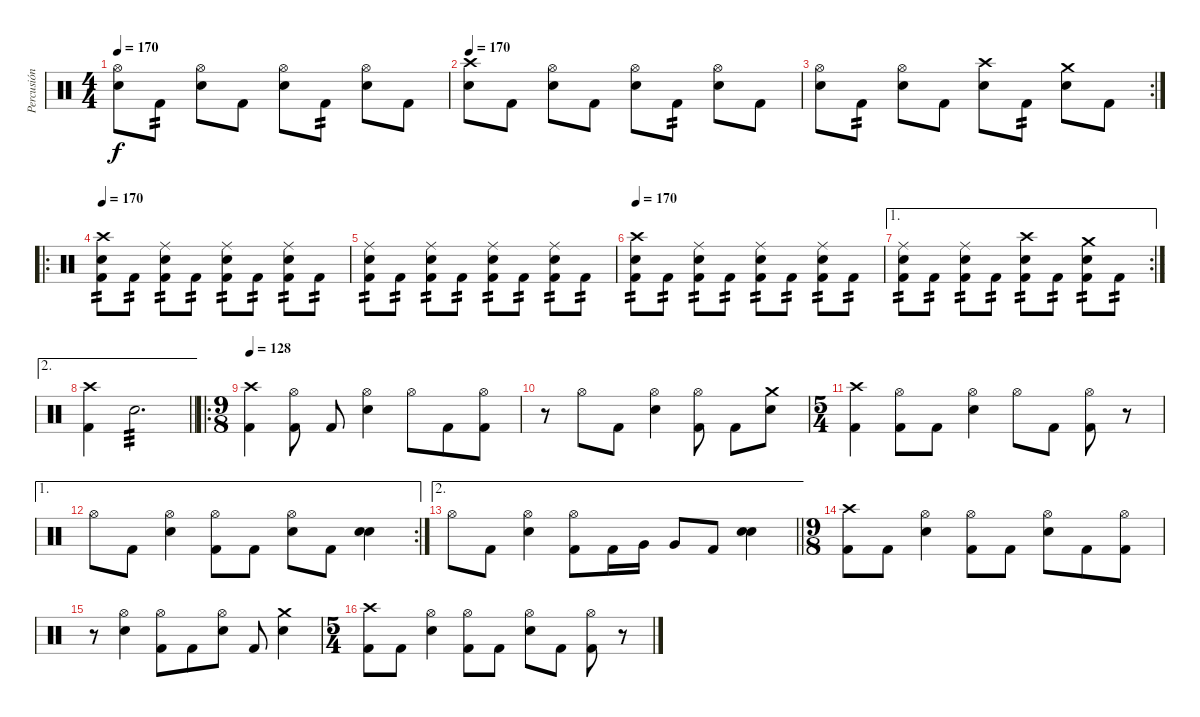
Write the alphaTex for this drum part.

\track ("Percusión" "Percusión") {instrument percussion}
\staff
\articulation defaults
\ts (4 4)
\tempo 170
\clef neutral
\ks c
("Electric Snare (hit)" "Hi-Hat (open)").8{dy f} "Kick (hit) 2".8{tp 2} ("Electric Snare (hit)" "Hi-Hat (open)").8 "Kick (hit) 2".8 ("Electric Snare (hit)" "Hi-Hat (open)").8 "Kick (hit) 2".8{tp 2} ("Electric Snare (hit)" "Hi-Hat (open)").8 "Kick (hit) 2".8 |
\tempo 170
("Electric Snare (hit)" "Crash high (hit)").8 "Kick (hit) 2".8 ("Electric Snare (hit)" "Hi-Hat (open)").8 "Kick (hit) 2".8 ("Electric Snare (hit)" "Hi-Hat (open)").8 "Kick (hit) 2".8{tp 2} ("Electric Snare (hit)" "Hi-Hat (open)").8 "Kick (hit) 2".8 |
\rc 2
("Electric Snare (hit)" "Hi-Hat (open)").8 "Kick (hit) 2".8{tp 2} ("Electric Snare (hit)" "Hi-Hat (open)").8 "Kick (hit) 2".8 ("Electric Snare (hit)" "Crash high (hit)").8 "Kick (hit) 2".8{tp 2} ("Electric Snare (hit)" "Crash medium (hit)").8 "Kick (hit) 2".8 |
\ro
\tempo 170
("Kick (hit) 2" "Electric Snare (hit)" "Crash high (hit)").8{tp 2} "Kick (hit) 2".8{tp 2} ("Kick (hit) 2" "Electric Snare (hit)" "Ride (middle)").8{tp 2} "Kick (hit) 2".8{tp 2} ("Kick (hit) 2" "Electric Snare (hit)" "Ride (middle)").8{tp 2} "Kick (hit) 2".8{tp 2} ("Kick (hit) 2" "Electric Snare (hit)" "Ride (middle)").8{tp 2} "Kick (hit) 2".8{tp 2} |
("Kick (hit) 2" "Electric Snare (hit)" "Ride (middle)").8{tp 2} "Kick (hit) 2".8{tp 2} ("Kick (hit) 2" "Electric Snare (hit)" "Ride (middle)").8{tp 2} "Kick (hit) 2".8{tp 2} ("Kick (hit) 2" "Electric Snare (hit)" "Ride (middle)").8{tp 2} "Kick (hit) 2".8{tp 2} ("Kick (hit) 2" "Electric Snare (hit)" "Ride (middle)").8{tp 2} "Kick (hit) 2".8{tp 2} |
\tempo 170
("Kick (hit) 2" "Electric Snare (hit)" "Crash high (hit)").8{tp 2} "Kick (hit) 2".8{tp 2} ("Kick (hit) 2" "Electric Snare (hit)" "Ride (middle)").8{tp 2} "Kick (hit) 2".8{tp 2} ("Kick (hit) 2" "Electric Snare (hit)" "Ride (middle)").8{tp 2} "Kick (hit) 2".8{tp 2} ("Kick (hit) 2" "Electric Snare (hit)" "Ride (middle)").8{tp 2} "Kick (hit) 2".8{tp 2} |
\ae 1
\rc 2
("Kick (hit) 2" "Electric Snare (hit)" "Ride (middle)").8{tp 2} "Kick (hit) 2".8{tp 2} ("Kick (hit) 2" "Electric Snare (hit)" "Ride (middle)").8{tp 2} "Kick (hit) 2".8{tp 2} ("Kick (hit) 2" "Electric Snare (hit)" "Crash high (hit)").8{tp 2} "Kick (hit) 2".8{tp 2} ("Kick (hit) 2" "Electric Snare (hit)" "Crash medium (hit)").8{tp 2} "Kick (hit) 2".8{tp 2} |
\ae 2
\barLineRight lightlight
("Kick (hit) 2" "Crash high (hit)").4 "Electric Snare (hit)".2{d tp 3} |
\ro
\ts (9 8)
\tempo 128
("Kick (hit) 2" "Crash high (hit)").4 ("Kick (hit) 2" "Hi-Hat (open)").8 "Kick (hit) 2".8 ("Electric Snare (hit)" "Hi-Hat (open)").4 "Hi-Hat (open)".8 "Kick (hit) 2".8 ("Kick (hit) 2" "Hi-Hat (open)").8 |
r.8 "Hi-Hat (open)".8 "Kick (hit) 2".8 ("Electric Snare (hit)" "Hi-Hat (open)").4 ("Kick (hit) 2" "Hi-Hat (open)").8 "Kick (hit) 2".8 ("Electric Snare (hit)" "Crash medium (hit)").8 |
\ts (5 4)
("Kick (hit) 2" "Crash high (hit)").4 ("Kick (hit) 2" "Hi-Hat (open)").8 "Kick (hit) 2".8 ("Electric Snare (hit)" "Hi-Hat (open)").4 "Hi-Hat (open)".8 "Kick (hit) 2".8 ("Kick (hit) 2" "Hi-Hat (open)").8 r.8 |
\ae 1
\rc 2 "Hi-Hat (open)".8 "Kick (hit) 2".8
("Electric Snare (hit)" "Hi-Hat (open)").4 ("Kick (hit) 2" "Hi-Hat (open)").8 "Kick (hit) 2".8 ("Electric Snare (hit)" "Hi-Hat (open)").8 "Kick (hit) 2".8 ("Electric Snare (hit)" "Snare (hit) 2").4 |
\ae 2
\barLineRight lightlight "Hi-Hat (open)".8 "Kick (hit) 2".8
("Electric Snare (hit)" "Hi-Hat (open)").4 ("Kick (hit) 2" "Hi-Hat (open)").8 "Kick (hit) 2".16 "Very Low Tom (hit)".16 "Very Low Tom (hit)".8 "Kick (hit) 2".8 ("Electric Snare (hit)" "Snare (hit) 2").4 |
\ts (9 8)
("Kick (hit) 2" "Crash high (hit)").8 "Kick (hit) 2".8 ("Electric Snare (hit)" "Hi-Hat (open)").4 ("Kick (hit) 2" "Hi-Hat (open)").8 "Kick (hit) 2".8 ("Electric Snare (hit)" "Hi-Hat (open)").8 "Kick (hit) 2".8 ("Kick (hit) 2" "Hi-Hat (open)").8 |
r.8 ("Electric Snare (hit)" "Hi-Hat (open)").4 ("Kick (hit) 2" "Hi-Hat (open)").8 "Kick (hit) 2".8 ("Electric Snare (hit)" "Hi-Hat (open)").8 "Kick (hit) 2".8 ("Electric Snare (hit)" "Crash medium (hit)").4 |
\ts (5 4)
("Kick (hit) 2" "Crash high (hit)").8 "Kick (hit) 2".8 ("Electric Snare (hit)" "Hi-Hat (open)").4 ("Kick (hit) 2" "Hi-Hat (open)").8 "Kick (hit) 2".8 ("Electric Snare (hit)" "Hi-Hat (open)").8 "Kick (hit) 2".8 ("Kick (hit) 2" "Hi-Hat (open)").8 r.8
